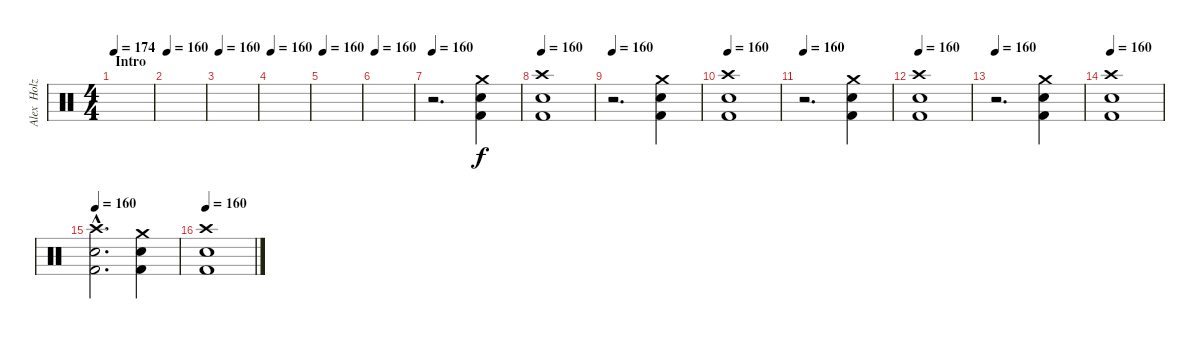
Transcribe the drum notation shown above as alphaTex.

\track ("Alex  Holzwarth (Drums)" "Alex  Holz") {instrument percussion}
\staff {score}
\articulation defaults
\ts (4 4)
\section ("" "Intro")
\tempo 174
\tempo 160
\tempo 174
\clef neutral
\ks c
|
\tempo 160
|
\tempo 160
|
\tempo 160
|
\tempo 160
|
\tempo 160
|
\tempo 160
r.2{d} ("Crash medium (hit)" "Snare (hit) 2" "Kick (hit) 2").4 |
\tempo 160
("Crash high (hit)" "Snare (hit) 2" "Kick (hit) 2").1 |
\tempo 160
r.2{d} ("Crash medium (hit)" "Snare (hit) 2" "Kick (hit) 2").4 |
\tempo 160
("Crash high (hit)" "Snare (hit) 2" "Kick (hit) 2").1 |
\tempo 160
r.2{d} ("Crash medium (hit)" "Snare (hit) 2" "Kick (hit) 2").4 |
\tempo 160
("Crash high (hit)" "Snare (hit) 2" "Kick (hit) 2").1 |
\tempo 160
r.2{d} ("Crash medium (hit)" "Snare (hit) 2" "Kick (hit) 2").4 |
\tempo 160
("Crash high (hit)" "Snare (hit) 2" "Kick (hit) 2").1 |
\tempo 160
("Crash high (hit)"{hac} "Snare (hit) 2"{hac} "Kick (hit) 2"{hac}).2{d} ("Crash medium (hit)" "Snare (hit) 2" "Kick (hit) 2").4 |
\tempo 160
("Crash high (hit)" "Snare (hit) 2" "Kick (hit) 2").1
